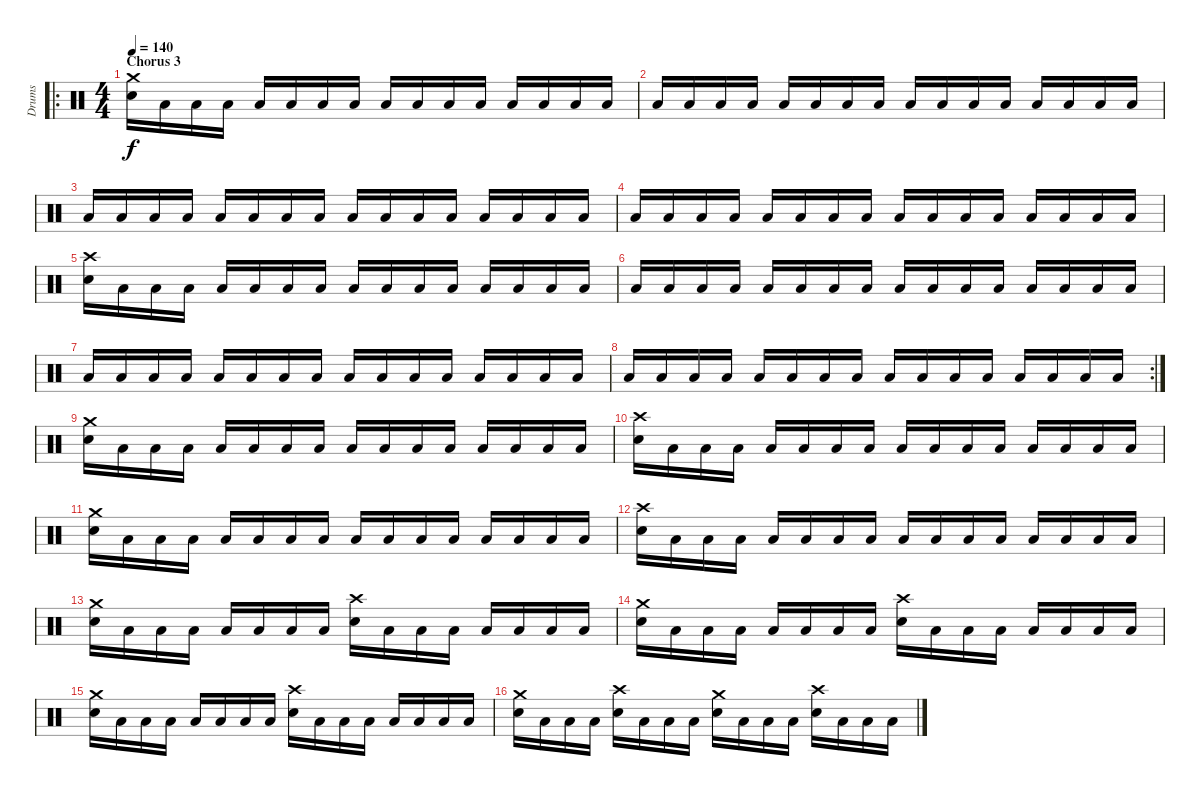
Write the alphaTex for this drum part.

\track ("Drums" "Drums") {instrument percussion}
\staff {score}
\articulation defaults
\ro
\ts (4 4)
\section ("" "Chorus 3")
\tempo 140
\clef neutral
\ks c
("Crash medium (hit)" "Snare (hit) 2").16{dy f} "Low Floor Tom (hit)".16 "Low Floor Tom (hit)".16 "Low Floor Tom (hit)".16 "Low Tom (hit)".16 "Low Floor Tom (hit)".16 "Low Floor Tom (hit)".16 "Low Floor Tom (hit)".16 "Low Tom (hit)".16 "Low Floor Tom (hit)".16 "Low Floor Tom (hit)".16 "Low Floor Tom (hit)".16 "Low Tom (hit)".16 "Low Floor Tom (hit)".16 "Low Floor Tom (hit)".16 "Low Floor Tom (hit)".16 |
"Low Tom (hit)".16 "Low Floor Tom (hit)".16 "Low Floor Tom (hit)".16 "Low Floor Tom (hit)".16 "Low Tom (hit)".16 "Low Floor Tom (hit)".16 "Low Floor Tom (hit)".16 "Low Floor Tom (hit)".16 "Low Tom (hit)".16 "Low Floor Tom (hit)".16 "Low Floor Tom (hit)".16 "Low Floor Tom (hit)".16 "Low Tom (hit)".16 "Low Floor Tom (hit)".16 "Low Floor Tom (hit)".16 "Low Floor Tom (hit)".16 |
"Low Tom (hit)".16 "Low Floor Tom (hit)".16 "Low Floor Tom (hit)".16 "Low Floor Tom (hit)".16 "Low Tom (hit)".16 "Low Floor Tom (hit)".16 "Low Floor Tom (hit)".16 "Low Floor Tom (hit)".16 "Low Tom (hit)".16 "Low Floor Tom (hit)".16 "Low Floor Tom (hit)".16 "Low Floor Tom (hit)".16 "Low Tom (hit)".16 "Low Floor Tom (hit)".16 "Low Floor Tom (hit)".16 "Low Floor Tom (hit)".16 |
"Low Tom (hit)".16 "Low Floor Tom (hit)".16 "Low Floor Tom (hit)".16 "Low Floor Tom (hit)".16 "Low Tom (hit)".16 "Low Floor Tom (hit)".16 "Low Floor Tom (hit)".16 "Low Floor Tom (hit)".16 "Low Tom (hit)".16 "Low Floor Tom (hit)".16 "Low Floor Tom (hit)".16 "Low Floor Tom (hit)".16 "Low Tom (hit)".16 "Low Floor Tom (hit)".16 "Low Floor Tom (hit)".16 "Low Floor Tom (hit)".16 |
("Crash high (hit)" "Snare (hit) 2").16 "Low Floor Tom (hit)".16 "Low Floor Tom (hit)".16 "Low Floor Tom (hit)".16 "Low Tom (hit)".16 "Low Floor Tom (hit)".16 "Low Floor Tom (hit)".16 "Low Floor Tom (hit)".16 "Low Tom (hit)".16 "Low Floor Tom (hit)".16 "Low Floor Tom (hit)".16 "Low Floor Tom (hit)".16 "Low Tom (hit)".16 "Low Floor Tom (hit)".16 "Low Floor Tom (hit)".16 "Low Floor Tom (hit)".16 |
"Low Tom (hit)".16 "Low Floor Tom (hit)".16 "Low Floor Tom (hit)".16 "Low Floor Tom (hit)".16 "Low Tom (hit)".16 "Low Floor Tom (hit)".16 "Low Floor Tom (hit)".16 "Low Floor Tom (hit)".16 "Low Tom (hit)".16 "Low Floor Tom (hit)".16 "Low Floor Tom (hit)".16 "Low Floor Tom (hit)".16 "Low Tom (hit)".16 "Low Floor Tom (hit)".16 "Low Floor Tom (hit)".16 "Low Floor Tom (hit)".16 |
"Low Tom (hit)".16 "Low Floor Tom (hit)".16 "Low Floor Tom (hit)".16 "Low Floor Tom (hit)".16 "Low Tom (hit)".16 "Low Floor Tom (hit)".16 "Low Floor Tom (hit)".16 "Low Floor Tom (hit)".16 "Low Tom (hit)".16 "Low Floor Tom (hit)".16 "Low Floor Tom (hit)".16 "Low Floor Tom (hit)".16 "Low Tom (hit)".16 "Low Floor Tom (hit)".16 "Low Floor Tom (hit)".16 "Low Floor Tom (hit)".16 |
\rc 2 "Low Tom (hit)".16 "Low Floor Tom (hit)".16 "Low Floor Tom (hit)".16 "Low Floor Tom (hit)".16 "Low Tom (hit)".16 "Low Floor Tom (hit)".16 "Low Floor Tom (hit)".16 "Low Floor Tom (hit)".16 "Low Tom (hit)".16 "Low Floor Tom (hit)".16 "Low Floor Tom (hit)".16 "Low Floor Tom (hit)".16 "Low Tom (hit)".16 "Low Floor Tom (hit)".16 "Low Floor Tom (hit)".16 "Low Floor Tom (hit)".16
|
("Crash medium (hit)" "Snare (hit) 2").16 "Low Floor Tom (hit)".16 "Low Floor Tom (hit)".16 "Low Floor Tom (hit)".16 "Low Tom (hit)".16 "Low Floor Tom (hit)".16 "Low Floor Tom (hit)".16 "Low Floor Tom (hit)".16 "Low Tom (hit)".16 "Low Floor Tom (hit)".16 "Low Floor Tom (hit)".16 "Low Floor Tom (hit)".16 "Low Tom (hit)".16 "Low Floor Tom (hit)".16 "Low Floor Tom (hit)".16 "Low Floor Tom (hit)".16 |
("Crash high (hit)" "Snare (hit) 2").16 "Low Floor Tom (hit)".16 "Low Floor Tom (hit)".16 "Low Floor Tom (hit)".16 "Low Tom (hit)".16 "Low Floor Tom (hit)".16 "Low Floor Tom (hit)".16 "Low Floor Tom (hit)".16 "Low Tom (hit)".16 "Low Floor Tom (hit)".16 "Low Floor Tom (hit)".16 "Low Floor Tom (hit)".16 "Low Tom (hit)".16 "Low Floor Tom (hit)".16 "Low Floor Tom (hit)".16 "Low Floor Tom (hit)".16 |
("Crash medium (hit)" "Snare (hit) 2").16 "Low Floor Tom (hit)".16 "Low Floor Tom (hit)".16 "Low Floor Tom (hit)".16 "Low Tom (hit)".16 "Low Floor Tom (hit)".16 "Low Floor Tom (hit)".16 "Low Floor Tom (hit)".16 "Low Tom (hit)".16 "Low Floor Tom (hit)".16 "Low Floor Tom (hit)".16 "Low Floor Tom (hit)".16 "Low Tom (hit)".16 "Low Floor Tom (hit)".16 "Low Floor Tom (hit)".16 "Low Floor Tom (hit)".16 |
("Crash high (hit)" "Snare (hit) 2").16 "Low Floor Tom (hit)".16 "Low Floor Tom (hit)".16 "Low Floor Tom (hit)".16 "Low Tom (hit)".16 "Low Floor Tom (hit)".16 "Low Floor Tom (hit)".16 "Low Floor Tom (hit)".16 "Low Tom (hit)".16 "Low Floor Tom (hit)".16 "Low Floor Tom (hit)".16 "Low Floor Tom (hit)".16 "Low Tom (hit)".16 "Low Floor Tom (hit)".16 "Low Floor Tom (hit)".16 "Low Floor Tom (hit)".16 |
("Crash medium (hit)" "Snare (hit) 2").16 "Low Floor Tom (hit)".16 "Low Floor Tom (hit)".16 "Low Floor Tom (hit)".16 "Low Tom (hit)".16 "Low Floor Tom (hit)".16 "Low Floor Tom (hit)".16 "Low Floor Tom (hit)".16 ("Crash high (hit)" "Snare (hit) 2").16 "Low Floor Tom (hit)".16 "Low Floor Tom (hit)".16 "Low Floor Tom (hit)".16 "Low Tom (hit)".16 "Low Floor Tom (hit)".16 "Low Floor Tom (hit)".16 "Low Floor Tom (hit)".16 |
("Crash medium (hit)" "Snare (hit) 2").16 "Low Floor Tom (hit)".16 "Low Floor Tom (hit)".16 "Low Floor Tom (hit)".16 "Low Tom (hit)".16 "Low Floor Tom (hit)".16 "Low Floor Tom (hit)".16 "Low Floor Tom (hit)".16 ("Crash high (hit)" "Snare (hit) 2").16 "Low Floor Tom (hit)".16 "Low Floor Tom (hit)".16 "Low Floor Tom (hit)".16 "Low Tom (hit)".16 "Low Floor Tom (hit)".16 "Low Floor Tom (hit)".16 "Low Floor Tom (hit)".16 |
("Crash medium (hit)" "Snare (hit) 2").16 "Low Floor Tom (hit)".16 "Low Floor Tom (hit)".16 "Low Floor Tom (hit)".16 "Low Tom (hit)".16 "Low Floor Tom (hit)".16 "Low Floor Tom (hit)".16 "Low Floor Tom (hit)".16 ("Crash high (hit)" "Snare (hit) 2").16 "Low Floor Tom (hit)".16 "Low Floor Tom (hit)".16 "Low Floor Tom (hit)".16 "Low Tom (hit)".16 "Low Floor Tom (hit)".16 "Low Floor Tom (hit)".16 "Low Floor Tom (hit)".16 |
("Crash medium (hit)" "Snare (hit) 2").16 "Low Floor Tom (hit)".16 "Low Floor Tom (hit)".16 "Low Floor Tom (hit)".16 ("Crash high (hit)" "Snare (hit) 2").16 "Low Floor Tom (hit)".16 "Low Floor Tom (hit)".16 "Low Floor Tom (hit)".16 ("Crash medium (hit)" "Snare (hit) 2").16 "Low Floor Tom (hit)".16 "Low Floor Tom (hit)".16 "Low Floor Tom (hit)".16 ("Crash high (hit)" "Snare (hit) 2").16 "Low Floor Tom (hit)".16 "Low Floor Tom (hit)".16 "Low Floor Tom (hit)".16
